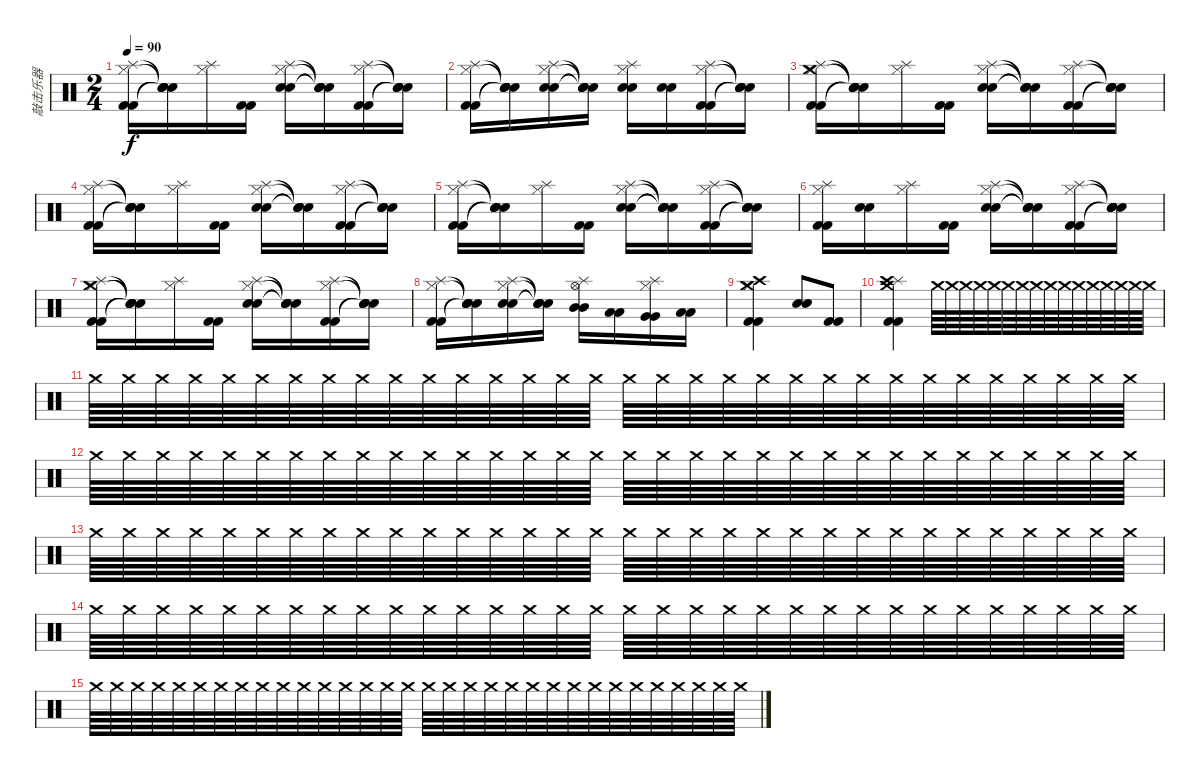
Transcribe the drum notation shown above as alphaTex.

\track ("敲击乐器" "敲击乐器") {instrument percussion}
\staff {score}
\articulation defaults
\ts (2 4)
\tempo 90
\clef neutral
\ks c
("Hi-Hat (closed)" "Splash (hit)" "Kick (hit) 2" "Kick (hit) 2").16{dy f} ("Snare (hit)"{t} "Snare (hit)"{t} "Snare (hit)"{t} "Snare (hit)"{t}).16 ("Hi-Hat (closed)" "Splash (hit)").16 ("Kick (hit) 2" "Kick (hit) 2").16 ("Hi-Hat (closed)" "Splash (hit)" "Electric Snare (hit)" "Electric Snare (hit)").16 ("Snare (hit)"{t} "Snare (hit)"{t} "Snare (hit)"{t} "Snare (hit)"{t}).16 ("Hi-Hat (closed)" "Splash (hit)" "Kick (hit) 2" "Kick (hit) 2").16 ("Snare (hit)"{t} "Snare (hit)"{t} "Snare (hit)"{t} "Snare (hit)"{t}).16 |
("Hi-Hat (closed)" "Splash (hit)" "Kick (hit) 2" "Kick (hit) 2").16 ("Snare (hit)"{t} "Snare (hit)"{t} "Snare (hit)"{t} "Snare (hit)"{t}).16 ("Hi-Hat (closed)" "Splash (hit)" "Electric Snare (hit)" "Electric Snare (hit)").16 ("Snare (hit)"{t} "Snare (hit)"{t} "Snare (hit)"{t} "Snare (hit)"{t}).16 ("Hi-Hat (closed)" "Splash (hit)" "Electric Snare (hit)" "Electric Snare (hit)").16 ("Electric Snare (hit)" "Electric Snare (hit)").16 ("Hi-Hat (closed)" "Splash (hit)" "Kick (hit) 2" "Kick (hit) 2").16 ("Snare (hit)"{t} "Snare (hit)"{t} "Snare (hit)"{t} "Snare (hit)"{t}).16 |
("Hi-Hat (closed)" "Splash (hit)" "Crash medium (hit)" "Kick (hit) 2" "Kick (hit) 2").16 ("Snare (hit)"{t} "Snare (hit)"{t} "Snare (hit)"{t} "Snare (hit)"{t} "Snare (hit)"{t}).16 ("Hi-Hat (closed)" "Splash (hit)").16 ("Kick (hit) 2" "Kick (hit) 2").16 ("Hi-Hat (closed)" "Splash (hit)" "Electric Snare (hit)" "Electric Snare (hit)").16 ("Snare (hit)"{t} "Snare (hit)"{t} "Snare (hit)"{t} "Snare (hit)"{t}).16 ("Hi-Hat (closed)" "Splash (hit)" "Kick (hit) 2" "Kick (hit) 2").16 ("Snare (hit)"{t} "Snare (hit)"{t} "Snare (hit)"{t} "Snare (hit)"{t}).16 |
("Hi-Hat (closed)" "Splash (hit)" "Kick (hit) 2" "Kick (hit) 2").16 ("Snare (hit)"{t} "Snare (hit)"{t} "Snare (hit)"{t} "Snare (hit)"{t}).16 ("Hi-Hat (closed)" "Splash (hit)").16 ("Kick (hit) 2" "Kick (hit) 2").16 ("Hi-Hat (closed)" "Splash (hit)" "Electric Snare (hit)" "Electric Snare (hit)").16 ("Snare (hit)"{t} "Snare (hit)"{t} "Snare (hit)"{t} "Snare (hit)"{t}).16 ("Hi-Hat (closed)" "Splash (hit)" "Kick (hit) 2" "Kick (hit) 2").16 ("Snare (hit)"{t} "Snare (hit)"{t} "Snare (hit)"{t} "Snare (hit)"{t}).16 |
("Hi-Hat (closed)" "Splash (hit)" "Kick (hit) 2" "Kick (hit) 2").16 ("Snare (hit)"{t} "Snare (hit)"{t} "Snare (hit)"{t} "Snare (hit)"{t}).16 ("Hi-Hat (closed)" "Splash (hit)").16 ("Kick (hit) 2" "Kick (hit) 2").16 ("Hi-Hat (closed)" "Splash (hit)" "Electric Snare (hit)" "Electric Snare (hit)").16 ("Snare (hit)"{t} "Snare (hit)"{t} "Snare (hit)"{t} "Snare (hit)"{t}).16 ("Hi-Hat (closed)" "Splash (hit)" "Kick (hit) 2" "Kick (hit) 2").16 ("Snare (hit)"{t} "Snare (hit)"{t} "Snare (hit)"{t} "Snare (hit)"{t}).16 |
("Hi-Hat (closed)" "Splash (hit)" "Kick (hit) 2" "Kick (hit) 2").16 ("Electric Snare (hit)" "Electric Snare (hit)").16 ("Hi-Hat (closed)" "Splash (hit)").16 ("Kick (hit) 2" "Kick (hit) 2").16 ("Hi-Hat (closed)" "Splash (hit)" "Electric Snare (hit)" "Electric Snare (hit)").16 ("Snare (hit)"{t} "Snare (hit)"{t} "Snare (hit)"{t} "Snare (hit)"{t}).16 ("Hi-Hat (closed)" "Splash (hit)" "Kick (hit) 2" "Kick (hit) 2").16 ("Snare (hit)"{t} "Snare (hit)"{t} "Snare (hit)"{t} "Snare (hit)"{t}).16 |
("Hi-Hat (closed)" "Splash (hit)" "Crash medium (hit)" "Kick (hit) 2" "Kick (hit) 2").16 ("Snare (hit)"{t} "Snare (hit)"{t} "Snare (hit)"{t} "Snare (hit)"{t} "Snare (hit)"{t}).16 ("Hi-Hat (closed)" "Splash (hit)").16 ("Kick (hit) 2" "Kick (hit) 2").16 ("Hi-Hat (closed)" "Splash (hit)" "Electric Snare (hit)" "Electric Snare (hit)").16 ("Snare (hit)"{t} "Snare (hit)"{t} "Snare (hit)"{t} "Snare (hit)"{t}).16 ("Hi-Hat (closed)" "Splash (hit)" "Kick (hit) 2" "Kick (hit) 2").16 ("Snare (hit)"{t} "Snare (hit)"{t} "Snare (hit)"{t} "Snare (hit)"{t}).16 |
("Hi-Hat (closed)" "Splash (hit)" "Kick (hit) 2" "Kick (hit) 2").16 ("Snare (hit)"{t} "Snare (hit)"{t} "Snare (hit)"{t} "Snare (hit)"{t}).16 ("Hi-Hat (closed)" "Splash (hit)" "Electric Snare (hit)" "Electric Snare (hit)").16 ("Snare (hit)"{t} "Snare (hit)"{t} "Snare (hit)"{t} "Snare (hit)"{t}).16 ("Hi-Hat (open)" "Splash (hit)" "Mid Tom (hit)" "Mid Tom (hit)").16 ("Low Tom (hit)" "Low Tom (hit)").16 ("Hi-Hat (closed)" "Splash (hit)" "Very Low Tom (hit)" "Very Low Tom (hit)").16 ("Low Floor Tom (hit)" "Low Floor Tom (hit)").16 |
("Hi-Hat (closed)" "Crash medium (hit)" "Crash high (hit)" "Kick (hit) 2" "Kick (hit) 2").4 ("Snare (hit) 2" "Snare (hit) 2").8 ("Kick (hit) 2" "Kick (hit) 2").8 |
("Splash (hit)" "Crash medium (hit)" "Crash high (hit)" "Kick (hit) 2" "Kick (hit) 2").4 "Crash medium (hit)".64 "Crash medium (hit)".64 "Crash medium (hit)".64 "Crash medium (hit)".64 "Crash medium (hit)".64 "Crash medium (hit)".64 "Crash medium (hit)".64 "Crash medium (hit)".64 "Crash medium (hit)".64 "Crash medium (hit)".64 "Crash medium (hit)".64 "Crash medium (hit)".64 "Crash medium (hit)".64 "Crash medium (hit)".64 "Crash medium (hit)".64 "Crash medium (hit)".64 |
"Crash medium (hit)".64 "Crash medium (hit)".64 "Crash medium (hit)".64 "Crash medium (hit)".64 "Crash medium (hit)".64 "Crash medium (hit)".64 "Crash medium (hit)".64 "Crash medium (hit)".64 "Crash medium (hit)".64 "Crash medium (hit)".64 "Crash medium (hit)".64 "Crash medium (hit)".64 "Crash medium (hit)".64 "Crash medium (hit)".64 "Crash medium (hit)".64 "Crash medium (hit)".64 "Crash medium (hit)".64 "Crash medium (hit)".64 "Crash medium (hit)".64 "Crash medium (hit)".64 "Crash medium (hit)".64 "Crash medium (hit)".64 "Crash medium (hit)".64 "Crash medium (hit)".64 "Crash medium (hit)".64 "Crash medium (hit)".64 "Crash medium (hit)".64 "Crash medium (hit)".64 "Crash medium (hit)".64 "Crash medium (hit)".64 "Crash medium (hit)".64 "Crash medium (hit)".64 |
"Crash medium (hit)".64 "Crash medium (hit)".64 "Crash medium (hit)".64 "Crash medium (hit)".64 "Crash medium (hit)".64 "Crash medium (hit)".64 "Crash medium (hit)".64 "Crash medium (hit)".64 "Crash medium (hit)".64 "Crash medium (hit)".64 "Crash medium (hit)".64 "Crash medium (hit)".64 "Crash medium (hit)".64 "Crash medium (hit)".64 "Crash medium (hit)".64 "Crash medium (hit)".64 "Crash medium (hit)".64 "Crash medium (hit)".64 "Crash medium (hit)".64 "Crash medium (hit)".64 "Crash medium (hit)".64 "Crash medium (hit)".64 "Crash medium (hit)".64 "Crash medium (hit)".64 "Crash medium (hit)".64 "Crash medium (hit)".64 "Crash medium (hit)".64 "Crash medium (hit)".64 "Crash medium (hit)".64 "Crash medium (hit)".64 "Crash medium (hit)".64 "Crash medium (hit)".64 |
"Crash medium (hit)".64 "Crash medium (hit)".64 "Crash medium (hit)".64 "Crash medium (hit)".64 "Crash medium (hit)".64 "Crash medium (hit)".64 "Crash medium (hit)".64 "Crash medium (hit)".64 "Crash medium (hit)".64 "Crash medium (hit)".64 "Crash medium (hit)".64 "Crash medium (hit)".64 "Crash medium (hit)".64 "Crash medium (hit)".64 "Crash medium (hit)".64 "Crash medium (hit)".64 "Crash medium (hit)".64 "Crash medium (hit)".64 "Crash medium (hit)".64 "Crash medium (hit)".64 "Crash medium (hit)".64 "Crash medium (hit)".64 "Crash medium (hit)".64 "Crash medium (hit)".64 "Crash medium (hit)".64 "Crash medium (hit)".64 "Crash medium (hit)".64 "Crash medium (hit)".64 "Crash medium (hit)".64 "Crash medium (hit)".64 "Crash medium (hit)".64 "Crash medium (hit)".64 |
"Crash medium (hit)".64 "Crash medium (hit)".64 "Crash medium (hit)".64 "Crash medium (hit)".64 "Crash medium (hit)".64 "Crash medium (hit)".64 "Crash medium (hit)".64 "Crash medium (hit)".64 "Crash medium (hit)".64 "Crash medium (hit)".64 "Crash medium (hit)".64 "Crash medium (hit)".64 "Crash medium (hit)".64 "Crash medium (hit)".64 "Crash medium (hit)".64 "Crash medium (hit)".64 "Crash medium (hit)".64 "Crash medium (hit)".64 "Crash medium (hit)".64 "Crash medium (hit)".64 "Crash medium (hit)".64 "Crash medium (hit)".64 "Crash medium (hit)".64 "Crash medium (hit)".64 "Crash medium (hit)".64 "Crash medium (hit)".64 "Crash medium (hit)".64 "Crash medium (hit)".64 "Crash medium (hit)".64 "Crash medium (hit)".64 "Crash medium (hit)".64 "Crash medium (hit)".64 |
"Crash medium (hit)".64 "Crash medium (hit)".64 "Crash medium (hit)".64 "Crash medium (hit)".64 "Crash medium (hit)".64 "Crash medium (hit)".64 "Crash medium (hit)".64 "Crash medium (hit)".64 "Crash medium (hit)".64 "Crash medium (hit)".64 "Crash medium (hit)".64 "Crash medium (hit)".64 "Crash medium (hit)".64 "Crash medium (hit)".64 "Crash medium (hit)".64 "Crash medium (hit)".64 "Crash medium (hit)".64 "Crash medium (hit)".64 "Crash medium (hit)".64 "Crash medium (hit)".64 "Crash medium (hit)".64 "Crash medium (hit)".64 "Crash medium (hit)".64 "Crash medium (hit)".64 "Crash medium (hit)".64 "Crash medium (hit)".64 "Crash medium (hit)".64 "Crash medium (hit)".64 "Crash medium (hit)".64 "Crash medium (hit)".64 "Crash medium (hit)".64 "Crash medium (hit)".64
